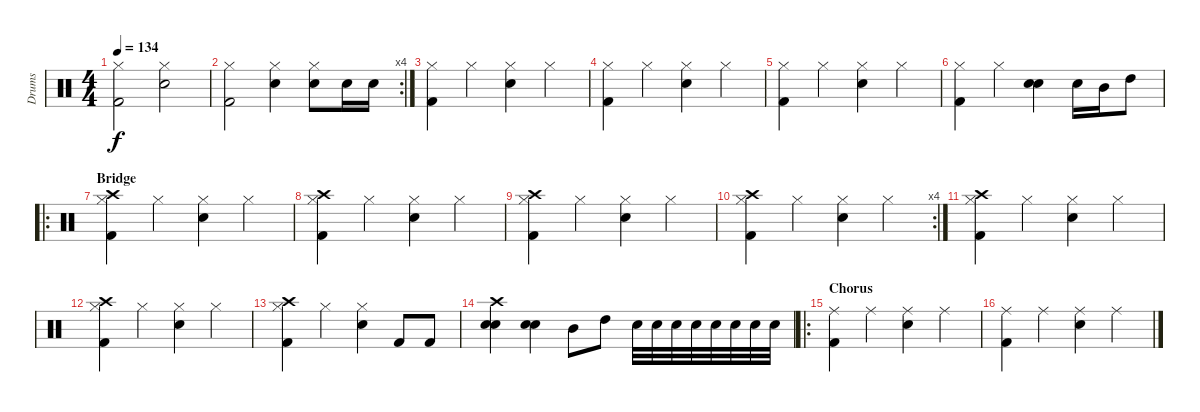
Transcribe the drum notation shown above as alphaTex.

\track ("Drums" "Drums") {instrument percussion}
\staff {score}
\articulation defaults
\ts (4 4)
\tempo 134
\clef neutral
\ks c
("Kick (hit) 2" "Hi-Hat (closed)").2{dy f} ("Electric Snare (hit)" "Hi-Hat (closed)").2 |
\rc 4
("Kick (hit) 2" "Hi-Hat (closed)").2 ("Electric Snare (hit)" "Hi-Hat (closed)").4 ("Electric Snare (hit)" "Hi-Hat (closed)").8 "Electric Snare (hit)".16 "Electric Snare (hit)".16 |
("Kick (hit) 2" "Hi-Hat (closed)").4 "Hi-Hat (closed)".4 ("Electric Snare (hit)" "Hi-Hat (closed)").4 "Hi-Hat (closed)".4 |
("Kick (hit) 2" "Hi-Hat (closed)").4 "Hi-Hat (closed)".4 ("Electric Snare (hit)" "Hi-Hat (closed)").4 "Hi-Hat (closed)".4 |
("Kick (hit) 2" "Hi-Hat (closed)").4 "Hi-Hat (closed)".4 ("Electric Snare (hit)" "Hi-Hat (closed)").4 "Hi-Hat (closed)".4 |
("Kick (hit) 2" "Hi-Hat (closed)").4 "Hi-Hat (closed)".4 ("Electric Snare (hit)" "Electric Snare (hit)").4 "Electric Snare (hit)".16 "Mid Tom (hit)".16 "High Tom (hit)".8 |
\ro
\section ("" "Bridge")
("Kick (hit) 2" "Hi-Hat (closed)" "Crash high (hit)").4 "Hi-Hat (closed)".4 ("Electric Snare (hit)" "Hi-Hat (closed)").4 "Hi-Hat (closed)".4 |
("Kick (hit) 2" "Hi-Hat (closed)" "Crash high (hit)").4 "Hi-Hat (closed)".4 ("Electric Snare (hit)" "Hi-Hat (closed)").4 "Hi-Hat (closed)".4 |
("Kick (hit) 2" "Hi-Hat (closed)" "Crash high (hit)").4 "Hi-Hat (closed)".4 ("Electric Snare (hit)" "Hi-Hat (closed)").4 "Hi-Hat (closed)".4 |
\rc 4
("Kick (hit) 2" "Hi-Hat (closed)" "Crash high (hit)").4 "Hi-Hat (closed)".4 ("Electric Snare (hit)" "Hi-Hat (closed)").4 "Hi-Hat (closed)".4 |
("Kick (hit) 2" "Hi-Hat (closed)" "Crash high (hit)").4 "Hi-Hat (closed)".4 ("Electric Snare (hit)" "Hi-Hat (closed)").4 "Hi-Hat (closed)".4 |
("Kick (hit) 2" "Hi-Hat (closed)" "Crash high (hit)").4 "Hi-Hat (closed)".4 ("Electric Snare (hit)" "Hi-Hat (closed)").4 "Hi-Hat (closed)".4 |
("Kick (hit) 2" "Hi-Hat (closed)" "Crash high (hit)").4 "Hi-Hat (closed)".4 ("Electric Snare (hit)" "Hi-Hat (closed)").4 "Kick (hit) 2".8 "Kick (hit) 2".8 |
("Electric Snare (hit)" "Electric Snare (hit)" "Crash high (hit)").4 ("Electric Snare (hit)" "Electric Snare (hit)").4 "Mid Tom (hit)".8 "High Tom (hit)".8 "Electric Snare (hit)".32 "Electric Snare (hit)".32 "Electric Snare (hit)".32 "Electric Snare (hit)".32 "Electric Snare (hit)".32 "Electric Snare (hit)".32 "Electric Snare (hit)".32 "Electric Snare (hit)".32 |
\ro
\section ("" "Chorus")
("Kick (hit) 2" "Ride (middle)").4 "Ride (middle)".4 ("Electric Snare (hit)" "Ride (middle)").4 "Ride (middle)".4 |
("Kick (hit) 2" "Ride (middle)").4 "Ride (middle)".4 ("Electric Snare (hit)" "Ride (middle)").4 "Ride (middle)".4
